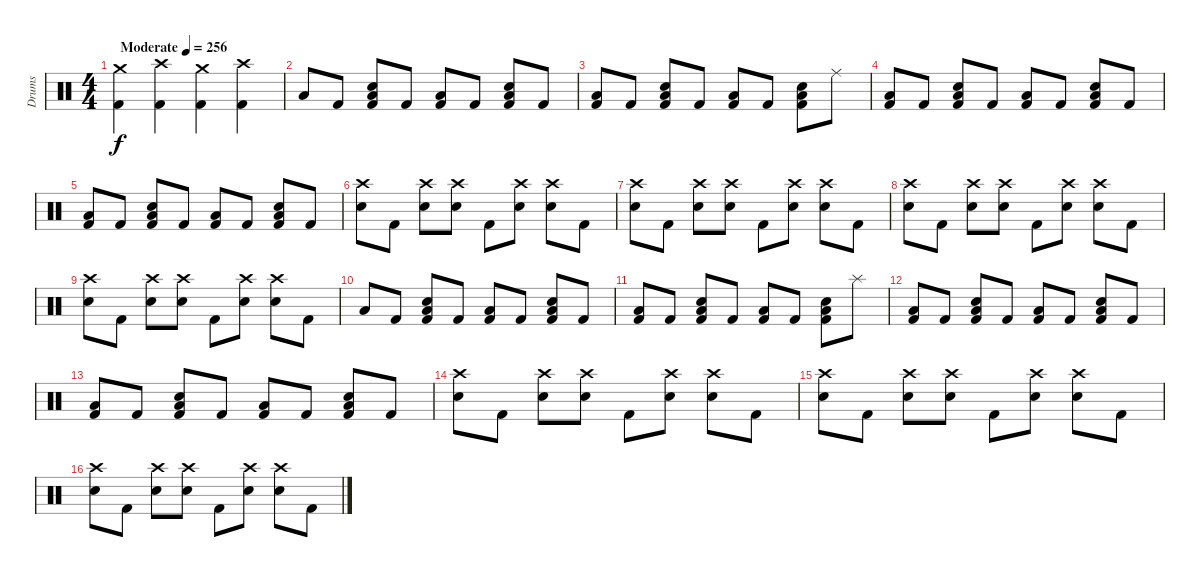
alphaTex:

\track ("Drums" "Drums") {instrument percussion}
\staff {score}
\articulation defaults
\ts (4 4)
\tempo (256 "Moderate")
\clef neutral
\ks c
("Crash medium (hit)" "Kick (hit) 2").4{dy f} ("Crash high (hit)" "Kick (hit) 2").4 ("Crash medium (hit)" "Kick (hit) 2").4 ("Crash high (hit)" "Kick (hit) 2").4 |
"Low Tom (hit)".8 "Kick (hit) 2".8 ("Low Tom (hit)" "Electric Snare (hit)" "Kick (hit) 2").8 "Kick (hit) 2".8 ("Low Tom (hit)" "Kick (hit) 2").8 "Kick (hit) 2".8 ("Low Tom (hit)" "Electric Snare (hit)" "Kick (hit) 2").8 "Kick (hit) 2".8 |
("Low Tom (hit)" "Kick (hit) 2").8 "Kick (hit) 2".8 ("Low Tom (hit)" "Electric Snare (hit)" "Kick (hit) 2").8 "Kick (hit) 2".8 ("Low Tom (hit)" "Kick (hit) 2").8 "Kick (hit) 2".8 ("Low Tom (hit)" "Electric Snare (hit)" "Kick (hit) 2").8 "Ride (middle)".8 |
("Low Tom (hit)" "Kick (hit) 2").8 "Kick (hit) 2".8 ("Low Tom (hit)" "Electric Snare (hit)" "Kick (hit) 2").8 "Kick (hit) 2".8 ("Low Tom (hit)" "Kick (hit) 2").8 "Kick (hit) 2".8 ("Low Tom (hit)" "Electric Snare (hit)" "Kick (hit) 2").8 "Kick (hit) 2".8 |
("Low Tom (hit)" "Kick (hit) 2").8 "Kick (hit) 2".8 ("Low Tom (hit)" "Electric Snare (hit)" "Kick (hit) 2").8 "Kick (hit) 2".8 ("Low Tom (hit)" "Kick (hit) 2").8 "Kick (hit) 2".8 ("Low Tom (hit)" "Electric Snare (hit)" "Kick (hit) 2").8 "Kick (hit) 2".8 |
("Crash high (hit)" "Electric Snare (hit)").8 "Kick (hit) 2".8 ("Crash high (hit)" "Electric Snare (hit)").8 ("Crash high (hit)" "Electric Snare (hit)").8 "Kick (hit) 2".8 ("Crash high (hit)" "Electric Snare (hit)").8 ("Crash high (hit)" "Electric Snare (hit)").8 "Kick (hit) 2".8 |
("Crash high (hit)" "Electric Snare (hit)").8 "Kick (hit) 2".8 ("Crash high (hit)" "Electric Snare (hit)").8 ("Crash high (hit)" "Electric Snare (hit)").8 "Kick (hit) 2".8 ("Crash high (hit)" "Electric Snare (hit)").8 ("Crash high (hit)" "Electric Snare (hit)").8 "Kick (hit) 2".8 |
("Crash high (hit)" "Electric Snare (hit)").8 "Kick (hit) 2".8 ("Crash high (hit)" "Electric Snare (hit)").8 ("Crash high (hit)" "Electric Snare (hit)").8 "Kick (hit) 2".8 ("Crash high (hit)" "Electric Snare (hit)").8 ("Crash high (hit)" "Electric Snare (hit)").8 "Kick (hit) 2".8 |
("Crash high (hit)" "Electric Snare (hit)").8 "Kick (hit) 2".8 ("Crash high (hit)" "Electric Snare (hit)").8 ("Crash high (hit)" "Electric Snare (hit)").8 "Kick (hit) 2".8 ("Crash high (hit)" "Electric Snare (hit)").8 ("Crash high (hit)" "Electric Snare (hit)").8 "Kick (hit) 2".8 |
"Low Tom (hit)".8 "Kick (hit) 2".8 ("Low Tom (hit)" "Electric Snare (hit)" "Kick (hit) 2").8 "Kick (hit) 2".8 ("Low Tom (hit)" "Kick (hit) 2").8 "Kick (hit) 2".8 ("Low Tom (hit)" "Electric Snare (hit)" "Kick (hit) 2").8 "Kick (hit) 2".8 |
("Low Tom (hit)" "Kick (hit) 2").8 "Kick (hit) 2".8 ("Low Tom (hit)" "Electric Snare (hit)" "Kick (hit) 2").8 "Kick (hit) 2".8 ("Low Tom (hit)" "Kick (hit) 2").8 "Kick (hit) 2".8 ("Low Tom (hit)" "Electric Snare (hit)" "Kick (hit) 2").8 "Splash (hit)".8 |
("Low Tom (hit)" "Kick (hit) 2").8 "Kick (hit) 2".8 ("Low Tom (hit)" "Electric Snare (hit)" "Kick (hit) 2").8 "Kick (hit) 2".8 ("Low Tom (hit)" "Kick (hit) 2").8 "Kick (hit) 2".8 ("Low Tom (hit)" "Electric Snare (hit)" "Kick (hit) 2").8 "Kick (hit) 2".8 |
("Low Tom (hit)" "Kick (hit) 2").8 "Kick (hit) 2".8 ("Low Tom (hit)" "Electric Snare (hit)" "Kick (hit) 2").8 "Kick (hit) 2".8 ("Low Tom (hit)" "Kick (hit) 2").8 "Kick (hit) 2".8 ("Low Tom (hit)" "Electric Snare (hit)" "Kick (hit) 2").8 "Kick (hit) 2".8 |
("Crash high (hit)" "Electric Snare (hit)").8 "Kick (hit) 2".8 ("Crash high (hit)" "Electric Snare (hit)").8 ("Crash high (hit)" "Electric Snare (hit)").8 "Kick (hit) 2".8 ("Crash high (hit)" "Electric Snare (hit)").8 ("Crash high (hit)" "Electric Snare (hit)").8 "Kick (hit) 2".8 |
("Crash high (hit)" "Electric Snare (hit)").8 "Kick (hit) 2".8 ("Crash high (hit)" "Electric Snare (hit)").8 ("Crash high (hit)" "Electric Snare (hit)").8 "Kick (hit) 2".8 ("Crash high (hit)" "Electric Snare (hit)").8 ("Crash high (hit)" "Electric Snare (hit)").8 "Kick (hit) 2".8 |
("Crash high (hit)" "Electric Snare (hit)").8 "Kick (hit) 2".8 ("Crash high (hit)" "Electric Snare (hit)").8 ("Crash high (hit)" "Electric Snare (hit)").8 "Kick (hit) 2".8 ("Crash high (hit)" "Electric Snare (hit)").8 ("Crash high (hit)" "Electric Snare (hit)").8 "Kick (hit) 2".8
